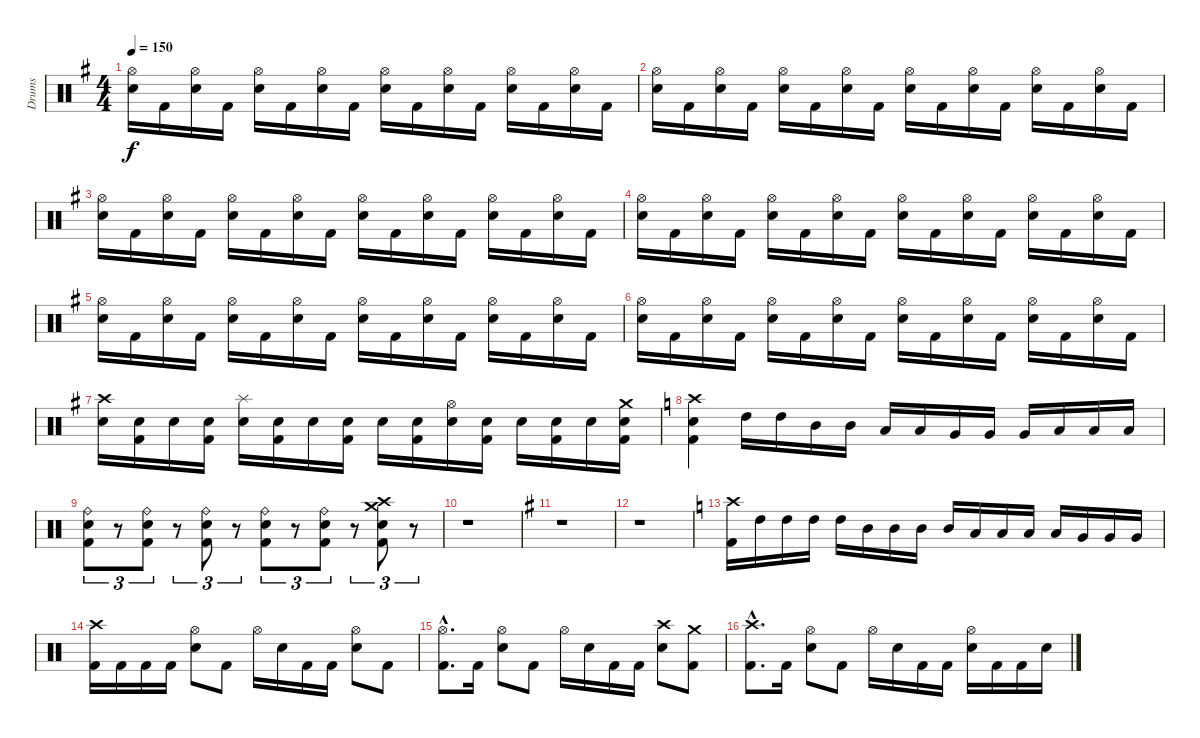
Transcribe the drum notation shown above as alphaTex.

\track ("Drums" "Drums") {instrument percussion}
\staff {score}
\articulation defaults
\ts (4 4)
\tempo 150
\clef neutral
\ks g
("Hi-Hat (open)" "Snare (hit) 2").16{dy f} "Kick (hit) 2".16 ("Hi-Hat (open)" "Snare (hit) 2").16 "Kick (hit) 2".16 ("Hi-Hat (open)" "Snare (hit) 2").16 "Kick (hit) 2".16 ("Hi-Hat (open)" "Snare (hit) 2").16 "Kick (hit) 2".16 ("Hi-Hat (open)" "Snare (hit) 2").16 "Kick (hit) 2".16 ("Hi-Hat (open)" "Snare (hit) 2").16 "Kick (hit) 2".16 ("Hi-Hat (open)" "Snare (hit) 2").16 "Kick (hit) 2".16 ("Hi-Hat (open)" "Snare (hit) 2").16 "Kick (hit) 2".16 |
("Hi-Hat (open)" "Snare (hit) 2").16 "Kick (hit) 2".16 ("Hi-Hat (open)" "Snare (hit) 2").16 "Kick (hit) 2".16 ("Hi-Hat (open)" "Snare (hit) 2").16 "Kick (hit) 2".16 ("Hi-Hat (open)" "Snare (hit) 2").16 "Kick (hit) 2".16 ("Hi-Hat (open)" "Snare (hit) 2").16 "Kick (hit) 2".16 ("Hi-Hat (open)" "Snare (hit) 2").16 "Kick (hit) 2".16 ("Hi-Hat (open)" "Snare (hit) 2").16 "Kick (hit) 2".16 ("Hi-Hat (open)" "Snare (hit) 2").16 "Kick (hit) 2".16 |
("Hi-Hat (open)" "Snare (hit) 2").16 "Kick (hit) 2".16 ("Hi-Hat (open)" "Snare (hit) 2").16 "Kick (hit) 2".16 ("Hi-Hat (open)" "Snare (hit) 2").16 "Kick (hit) 2".16 ("Hi-Hat (open)" "Snare (hit) 2").16 "Kick (hit) 2".16 ("Hi-Hat (open)" "Snare (hit) 2").16 "Kick (hit) 2".16 ("Hi-Hat (open)" "Snare (hit) 2").16 "Kick (hit) 2".16 ("Hi-Hat (open)" "Snare (hit) 2").16 "Kick (hit) 2".16 ("Hi-Hat (open)" "Snare (hit) 2").16 "Kick (hit) 2".16 |
("Hi-Hat (open)" "Snare (hit) 2").16 "Kick (hit) 2".16 ("Hi-Hat (open)" "Snare (hit) 2").16 "Kick (hit) 2".16 ("Hi-Hat (open)" "Snare (hit) 2").16 "Kick (hit) 2".16 ("Hi-Hat (open)" "Snare (hit) 2").16 "Kick (hit) 2".16 ("Hi-Hat (open)" "Snare (hit) 2").16 "Kick (hit) 2".16 ("Hi-Hat (open)" "Snare (hit) 2").16 "Kick (hit) 2".16 ("Hi-Hat (open)" "Snare (hit) 2").16 "Kick (hit) 2".16 ("Hi-Hat (open)" "Snare (hit) 2").16 "Kick (hit) 2".16 |
("Hi-Hat (open)" "Snare (hit) 2").16 "Kick (hit) 2".16 ("Hi-Hat (open)" "Snare (hit) 2").16 "Kick (hit) 2".16 ("Hi-Hat (open)" "Snare (hit) 2").16 "Kick (hit) 2".16 ("Hi-Hat (open)" "Snare (hit) 2").16 "Kick (hit) 2".16 ("Hi-Hat (open)" "Snare (hit) 2").16 "Kick (hit) 2".16 ("Hi-Hat (open)" "Snare (hit) 2").16 "Kick (hit) 2".16 ("Hi-Hat (open)" "Snare (hit) 2").16 "Kick (hit) 2".16 ("Hi-Hat (open)" "Snare (hit) 2").16 "Kick (hit) 2".16 |
("Hi-Hat (open)" "Snare (hit) 2").16 "Kick (hit) 2".16 ("Hi-Hat (open)" "Snare (hit) 2").16 "Kick (hit) 2".16 ("Hi-Hat (open)" "Snare (hit) 2").16 "Kick (hit) 2".16 ("Hi-Hat (open)" "Snare (hit) 2").16 "Kick (hit) 2".16 ("Hi-Hat (open)" "Snare (hit) 2").16 "Kick (hit) 2".16 ("Hi-Hat (open)" "Snare (hit) 2").16 "Kick (hit) 2".16 ("Hi-Hat (open)" "Snare (hit) 2").16 "Kick (hit) 2".16 ("Hi-Hat (open)" "Snare (hit) 2").16 "Kick (hit) 2".16 |
("Crash high (hit)" "Snare (hit) 2").16 ("Snare (hit) 2" "Kick (hit) 2").16 "Snare (hit) 2".16 ("Snare (hit) 2" "Kick (hit) 2").16 ("Splash (hit)" "Snare (hit) 2").16 ("Snare (hit) 2" "Kick (hit) 2").16 "Snare (hit) 2".16 ("Snare (hit) 2" "Kick (hit) 2").16 "Snare (hit) 2".16 ("Snare (hit) 2" "Kick (hit) 2").16 ("Hi-Hat (open)" "Snare (hit) 2").16 ("Snare (hit) 2" "Kick (hit) 2").16 "Snare (hit) 2".16 ("Snare (hit) 2" "Kick (hit) 2").16 "Snare (hit) 2".16 ("Crash medium (hit)" "Snare (hit) 2" "Kick (hit) 2").16 |
\ks c
("Crash high (hit)" "Snare (hit) 2" "Kick (hit) 2").4 "High Tom (hit)".16{volume 14 balance 16} "High Tom (hit)".16{volume 14 balance 16} "Mid Tom (hit)".16{volume 14 balance 14} "Mid Tom (hit)".16{volume 14 balance 14} "Low Tom (hit)".16{volume 14 balance 12} "Low Tom (hit)".16{volume 14 balance 11} "Very Low Tom (hit)".16{volume 14 balance 10} "Very Low Tom (hit)".16{volume 14 balance 9} "Very Low Tom (hit)".16{volume 14 balance 8} "Low Floor Tom (hit)".16{volume 14 balance 7} "Low Floor Tom (hit)".16{volume 14 balance 5} "Low Floor Tom (hit)".16{volume 14 balance 4} |
("Ride (bell)" "Snare (hit) 2" "Kick (hit) 2").8{tu (3 2)} r.8{tu (3 2)} ("Ride (bell)" "Snare (hit) 2" "Kick (hit) 2").8{tu (3 2)} r.8{tu (3 2)} ("Ride (bell)" "Snare (hit) 2" "Kick (hit) 2").8{tu (3 2)} r.8{tu (3 2)} ("Ride (bell)" "Snare (hit) 2" "Kick (hit) 2").8{tu (3 2)} r.8{tu (3 2)} ("Ride (bell)" "Snare (hit) 2" "Kick (hit) 2").8{tu (3 2)} r.8{tu (3 2)} ("Crash medium (hit)" "Crash high (hit)" "Snare (hit) 2" "Kick (hit) 2").8{tu (3 2)} r.8{tu (3 2)} |
r.1 |
\ks g
r.1 |
r.1 |
\ks c
("Crash high (hit)" "Kick (hit) 2").16 "High Tom (hit)".16 "High Tom (hit)".16 "High Tom (hit)".16 "High Tom (hit)".16 "Mid Tom (hit)".16 "Mid Tom (hit)".16 "Mid Tom (hit)".16 "Mid Tom (hit)".16 "Low Tom (hit)".16 "Low Tom (hit)".16 "Low Tom (hit)".16 "Low Tom (hit)".16 "Very Low Tom (hit)".16 "Very Low Tom (hit)".16 "Very Low Tom (hit)".16 |
("Crash high (hit)" "Kick (hit) 2").16 "Kick (hit) 2".16 "Kick (hit) 2".16 "Kick (hit) 2".16 ("Hi-Hat (open)" "Snare (hit) 2").8 "Kick (hit) 2".8 "Hi-Hat (open)".16 "Snare (hit) 2".16 "Kick (hit) 2".16 "Kick (hit) 2".16 ("Hi-Hat (open)" "Snare (hit) 2").8 "Kick (hit) 2".8 |
("Hi-Hat (open)"{hac} "Kick (hit) 2"{hac}).8{d} "Kick (hit) 2".16 ("Hi-Hat (open)" "Snare (hit) 2").8 "Kick (hit) 2".8 "Hi-Hat (open)".16 "Snare (hit) 2".16 "Kick (hit) 2".16 "Kick (hit) 2".16 ("Crash high (hit)" "Snare (hit) 2").8 ("Crash medium (hit)" "Kick (hit) 2").8 |
("Crash high (hit)"{hac} "Kick (hit) 2"{hac}).8{d} "Kick (hit) 2".16 ("Hi-Hat (open)" "Snare (hit) 2").8 "Kick (hit) 2".8 "Hi-Hat (open)".16 "Snare (hit) 2".16 "Kick (hit) 2".16 "Kick (hit) 2".16 ("Hi-Hat (open)" "Snare (hit) 2").16 "Kick (hit) 2".16 "Kick (hit) 2".16 "Snare (hit) 2".16
